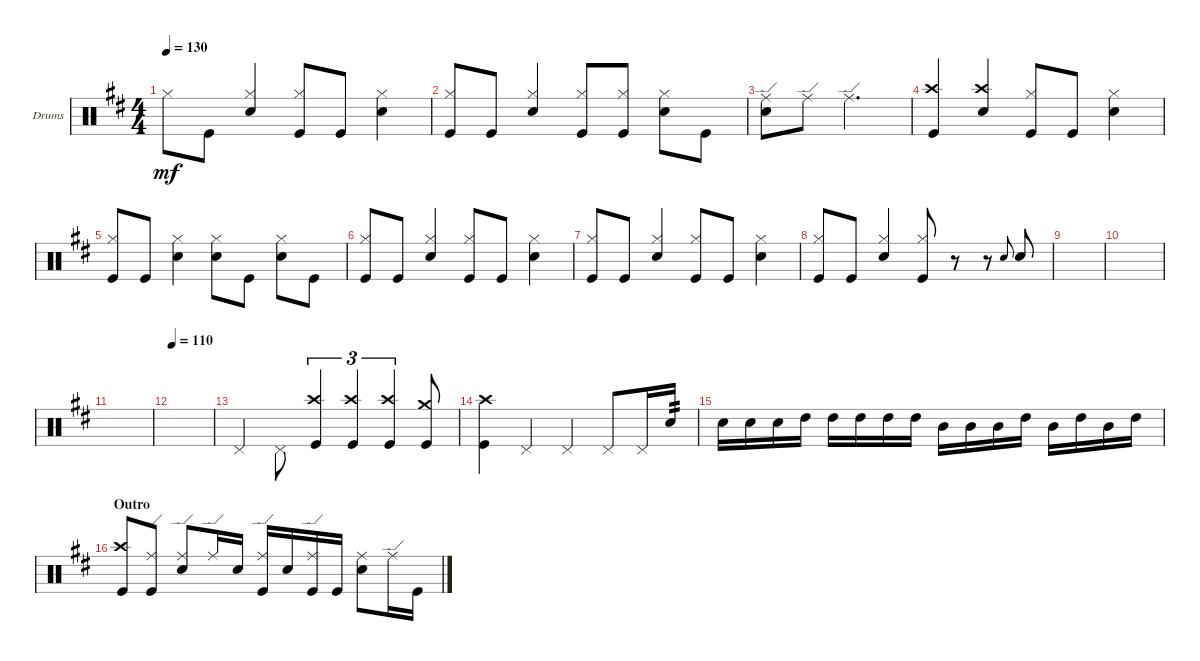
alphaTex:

\defaultSystemsLayout 4
\bracketExtendMode groupsimilarinstruments
\firstSystemTrackNameOrientation horizontal
\otherSystemsTrackNameOrientation horizontal
\track ("PETER CRISS" "Drums") {instrument percussion}
\staff {score}
\articulation defaults
\ts (4 4)
\tempo 130
\clef neutral
\scale
0.333333
\ks d "Hi-Hat (closed)".8{dy mf} "Kick (hit)".8
("Snare (hit) 2" "Hi-Hat (closed)").4 ("Kick (hit)" "Hi-Hat (closed)").8{beam invert} "Kick (hit)".8 ("Snare (hit) 2" "Hi-Hat (closed)").4 |
\scale
0.333333 ("Kick (hit)" "Hi-Hat (closed)").8{beam invert} "Kick (hit)".8 ("Snare (hit) 2" "Hi-Hat (closed)").4 ("Kick (hit)" "Hi-Hat (closed)").8{beam invert} ("Hi-Hat (closed)" "Kick (hit)").8 ("Snare (hit) 2" "Hi-Hat (closed)").8 "Kick (hit)".8 |
\scale
0.333333 ("Ride (edge)" "Snare (hit) 2").8 "Ride (edge)".8 "Ride (edge)".2{d} |
\scale
0.333333 ("Kick (hit)" "Crash high (hit)").4{beam invert} ("Snare (hit) 2" "Crash high (hit)").4 ("Kick (hit)" "Hi-Hat (closed)").8{beam invert} "Kick (hit)".8 ("Snare (hit) 2" "Hi-Hat (closed)").4 |
\scale
0.333333 ("Kick (hit)" "Hi-Hat (closed)").8{beam invert} "Kick (hit)".8 ("Snare (hit) 2" "Hi-Hat (closed)").4 ("Hi-Hat (closed)" "Snare (hit) 2").8 "Kick (hit)".8 ("Snare (hit) 2" "Hi-Hat (closed)").8 "Kick (hit)".8 |
\scale
0.333333 ("Kick (hit)" "Hi-Hat (closed)").8{beam invert} "Kick (hit)".8 ("Snare (hit) 2" "Hi-Hat (closed)").4 ("Hi-Hat (closed)" "Kick (hit)").8{beam invert} "Kick (hit)".8 ("Snare (hit) 2" "Hi-Hat (closed)").4 |
\scale
0.333333 ("Kick (hit)" "Hi-Hat (closed)").8{beam invert} "Kick (hit)".8 ("Snare (hit) 2" "Hi-Hat (closed)").4 ("Hi-Hat (closed)" "Kick (hit)").8{beam invert} "Kick (hit)".8 ("Snare (hit) 2" "Hi-Hat (closed)").4 |
\scale
0.333333 ("Kick (hit)" "Hi-Hat (closed)").8{beam invert} "Kick (hit)".8 ("Snare (hit) 2" "Hi-Hat (closed)").4 ("Kick (hit)" "Hi-Hat (closed)").8{beam invert} r.8 r.8 "Snare (hit) 2".8{gr onbeat} "Snare (hit) 2".8{beam invert} |
\scale
0.333333 |
\scale
0.333333 |
\scale
0.333333 |
\tempo 110
\scale
0.333333 |
\scale
0.333333 "Pedal Hi-Hat (hit)".4 "Pedal Hi-Hat (hit)".8 ("Kick (hit)" "Crash high (hit)").4{tu (3 2) beam invert} ("Kick (hit)" "Crash high (hit)").4{tu (3 2) beam invert} ("Kick (hit)" "Crash high (hit)").4{tu (3 2) beam invert} ("Crash medium (hit)" "Kick (hit)").8{beam invert} |
\scale
0.333333 ("Kick (hit)" "Crash high (hit)").4 "Pedal Hi-Hat (hit)".4 "Pedal Hi-Hat (hit)".4 "Pedal Hi-Hat (hit)".8 "Pedal Hi-Hat (hit)".16 "Snare (hit) 2".16{tp 2} |
"Snare (hit) 2".16 "Snare (hit) 2".16 "Snare (hit) 2".16 "High Tom (hit)".16 "High Tom (hit)".16 "High Tom (hit)".16 "High Tom (hit)".16 "High Tom (hit)".16 "Mid Tom (hit)".16 "Mid Tom (hit)".16 "Mid Tom (hit)".16 "High Tom (hit)".16 "Mid Tom (hit)".16 "High Tom (hit)".16 "Mid Tom (hit)".16 "High Tom (hit)".16 |
\section ("" "Outro")
("Kick (hit)" "Crash high (hit)").8{beam invert} ("Ride (edge)" "Kick (hit)").8 ("Snare (hit) 2" "Ride (edge)").8 "Ride (edge)".16 "Snare (hit) 2".16 ("Ride (edge)" "Kick (hit)").16{beam invert} "Snare (hit) 2".16 ("Ride (edge)" "Kick (hit)").16 "Kick (hit)".16 ("Snare (hit) 2" "Ride (middle)").8 "Ride (edge)".16 "Kick (hit)".16
